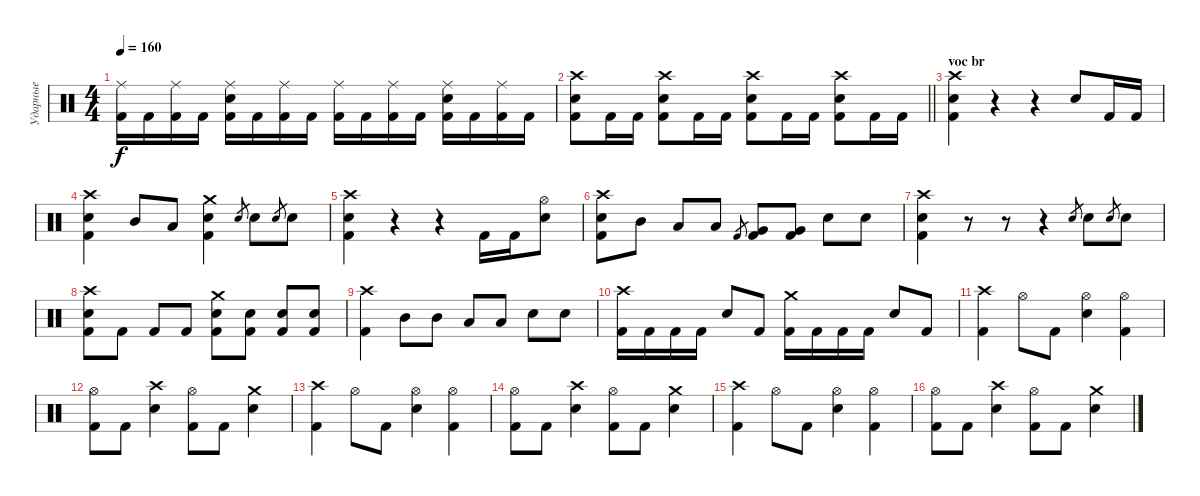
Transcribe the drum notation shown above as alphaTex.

\track ("Ударные" "Ударные") {instrument percussion}
\staff {score}
\articulation defaults
\ts (4 4)
\tempo 160
\clef neutral
\ks c
("Ride (middle)" "Kick (hit) 2").16{dy f} "Kick (hit) 2".16 ("Ride (middle)" "Kick (hit) 2").16 "Kick (hit) 2".16 ("Ride (middle)" "Electric Snare (hit)" "Kick (hit) 2").16 "Kick (hit) 2".16 ("Ride (middle)" "Kick (hit) 2").16 "Kick (hit) 2".16 ("Ride (middle)" "Kick (hit) 2").16 "Kick (hit) 2".16 ("Ride (middle)" "Kick (hit) 2").16 "Kick (hit) 2".16 ("Ride (middle)" "Electric Snare (hit)" "Kick (hit) 2").16 "Kick (hit) 2".16 ("Ride (middle)" "Kick (hit) 2").16 "Kick (hit) 2".16 |
\barLineRight lightlight
("Crash high (hit)" "Electric Snare (hit)" "Kick (hit) 2").8 "Kick (hit) 2".16 "Kick (hit) 2".16 ("Crash high (hit)" "Electric Snare (hit)" "Kick (hit) 2").8 "Kick (hit) 2".16 "Kick (hit) 2".16 ("Crash high (hit)" "Electric Snare (hit)" "Kick (hit) 2").8 "Kick (hit) 2".16 "Kick (hit) 2".16 ("Crash high (hit)" "Electric Snare (hit)" "Kick (hit) 2").8 "Kick (hit) 2".16 "Kick (hit) 2".16 |
\section ("" "voc br")
("Crash high (hit)" "Electric Snare (hit)" "Kick (hit) 2").4 r.4 r.4 "Electric Snare (hit)".8 "Kick (hit) 2".16 "Kick (hit) 2".16 |
("Crash high (hit)" "Electric Snare (hit)" "Kick (hit) 2").4 "Mid Tom (hit)".8 "Low Tom (hit)".8 ("Crash medium (hit)" "Electric Snare (hit)" "Kick (hit) 2").4 "Electric Snare (hit)".8{gr} "Electric Snare (hit)".8 "Electric Snare (hit)".8{gr} "Electric Snare (hit)".8 |
("Crash high (hit)" "Electric Snare (hit)" "Kick (hit) 2").4 r.4 r.4 "Kick (hit) 2".16 "Kick (hit) 2".16 ("Hi-Hat (open)" "Electric Snare (hit)").8 |
("Crash high (hit)" "Electric Snare (hit)" "Kick (hit) 2").8 "Mid Tom (hit)".8 "Low Tom (hit)".8 "Low Tom (hit)".8 "Kick (hit) 2".8{gr} ("Very Low Tom (hit)" "Kick (hit) 2").8 ("Very Low Tom (hit)" "Kick (hit) 2").8 "Electric Snare (hit)".8 "Electric Snare (hit)".8 |
("Crash high (hit)" "Electric Snare (hit)" "Kick (hit) 2").4 r.8 r.8 r.4 "Electric Snare (hit)".8{gr} "Electric Snare (hit)".8 "Electric Snare (hit)".8{gr} "Electric Snare (hit)".8 |
("Crash high (hit)" "Electric Snare (hit)" "Kick (hit) 2").8 "Kick (hit) 2".8 "Kick (hit) 2".8 "Kick (hit) 2".8 ("Crash medium (hit)" "Electric Snare (hit)" "Kick (hit) 2").8 ("Electric Snare (hit)" "Kick (hit) 2").8 ("Electric Snare (hit)" "Kick (hit) 2").8 ("Electric Snare (hit)" "Kick (hit) 2").8 |
("Crash high (hit)" "Kick (hit) 2").4 "Mid Tom (hit)".8 "Mid Tom (hit)".8 "Low Tom (hit)".8 "Low Tom (hit)".8 "Electric Snare (hit)".8 "Electric Snare (hit)".8 |
("Crash high (hit)" "Kick (hit) 2").16 "Kick (hit) 2".16 "Kick (hit) 2".16 "Kick (hit) 2".16 "Electric Snare (hit)".8 "Kick (hit) 2".8 ("Crash medium (hit)" "Kick (hit) 2").16 "Kick (hit) 2".16 "Kick (hit) 2".16 "Kick (hit) 2".16 "Electric Snare (hit)".8 "Kick (hit) 2".8 |
("Crash high (hit)" "Kick (hit) 2").4 "Hi-Hat (open)".8 "Kick (hit) 2".8 ("Hi-Hat (open)" "Electric Snare (hit)").4 ("Hi-Hat (open)" "Kick (hit) 2").4 |
("Hi-Hat (open)" "Kick (hit) 2").8 "Kick (hit) 2".8 ("Crash high (hit)" "Electric Snare (hit)").4 ("Hi-Hat (open)" "Kick (hit) 2").8 "Kick (hit) 2".8 ("Crash medium (hit)" "Electric Snare (hit)").4 |
("Crash high (hit)" "Kick (hit) 2").4 "Hi-Hat (open)".8 "Kick (hit) 2".8 ("Hi-Hat (open)" "Electric Snare (hit)").4 ("Hi-Hat (open)" "Kick (hit) 2").4 |
("Hi-Hat (open)" "Kick (hit) 2").8 "Kick (hit) 2".8 ("Crash high (hit)" "Electric Snare (hit)").4 ("Hi-Hat (open)" "Kick (hit) 2").8 "Kick (hit) 2".8 ("Crash medium (hit)" "Electric Snare (hit)").4 |
("Crash high (hit)" "Kick (hit) 2").4 "Hi-Hat (open)".8 "Kick (hit) 2".8 ("Hi-Hat (open)" "Electric Snare (hit)").4 ("Hi-Hat (open)" "Kick (hit) 2").4 |
("Hi-Hat (open)" "Kick (hit) 2").8 "Kick (hit) 2".8 ("Crash high (hit)" "Electric Snare (hit)").4 ("Hi-Hat (open)" "Kick (hit) 2").8 "Kick (hit) 2".8 ("Crash medium (hit)" "Electric Snare (hit)").4
